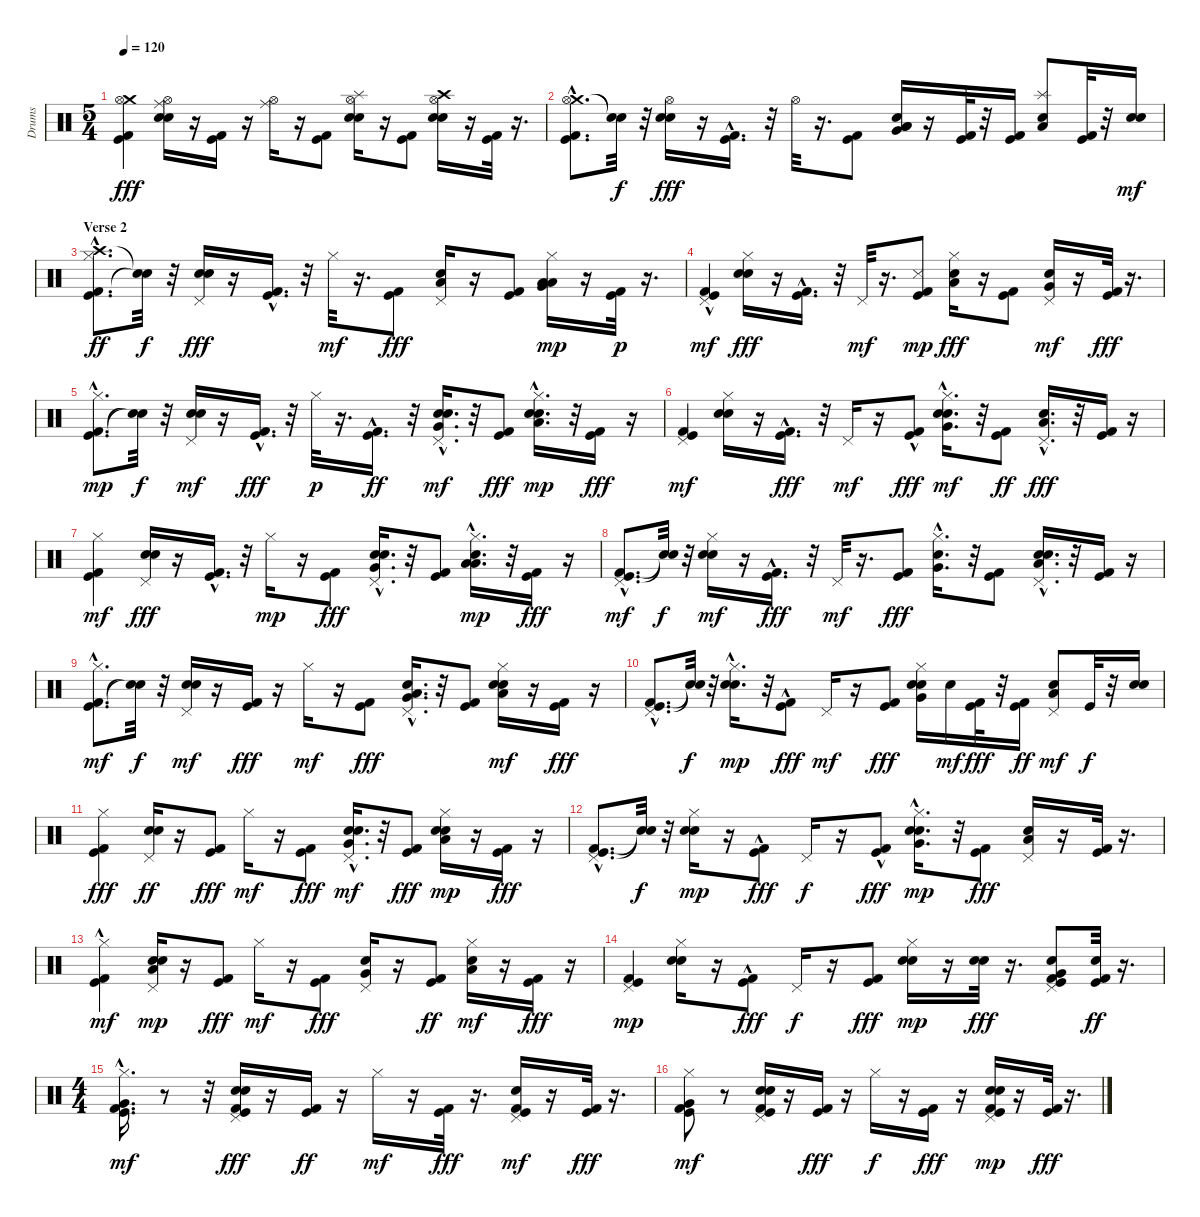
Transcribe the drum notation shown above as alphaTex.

\track ("Drums" "Drums") {instrument percussion}
\staff {score}
\articulation defaults
\ts (5 4)
\tempo 120
\clef neutral
\ks c
("Crash medium (hit)" "Hi-Hat (open)" "Kick (hit) 2" "Kick (hit)").4{dy fff} ("Hi-Hat (open)" "Ride (middle)" "Electric Snare (hit)" "Snare (hit) 2").16 r.16 ("Kick (hit)" "Kick (hit) 2").16 r.16 ("Hi-Hat (open)" "Ride (middle)").16 r.16 ("Kick (hit)" "Kick (hit) 2").8 ("Hi-Hat (open)" "Splash (hit)" "Snare (hit) 2" "Electric Snare (hit)").16 r.16 ("Kick (hit) 2" "Kick (hit)").8 ("Crash high (hit)" "Hi-Hat (open)" "Snare (hit) 2" "Electric Snare (hit)").16 r.16 ("Kick (hit) 2" "Kick (hit)").32 r.16{d} |
("Crash medium (hit)" "Hi-Hat (open)" "Kick (hit) 2"{hac} "Kick (hit)"{hac}).8{d} ("Snare (hit)"{t} "Snare (hit)"{t}).32{dy f} r.32 ("Hi-Hat (open)" "Electric Snare (hit)" "Snare (hit) 2").16{dy fff} r.16 ("Kick (hit) 2"{hac} "Kick (hit)"{hac}).16{d} r.32 "Hi-Hat (open)".32 r.16{d} ("Kick (hit) 2" "Kick (hit)").8 ("Low Tom (hit)" "Very Low Tom (hit)" "Low Floor Tom (hit)" "Snare (hit) 2").16 r.16 ("Kick (hit) 2" "Kick (hit)").32 r.32 ("Kick (hit) 2" "Kick (hit)").16 ("Low Floor Tom (hit)" "Splash (hit)" "Snare (hit) 2").8 ("Kick (hit) 2" "Kick (hit)").32 r.32 ("Snare (hit) 2" "Electric Snare (hit)").16{dy mf} |
\section ("" "Verse 2")
("Crash high (hit)" "Kick (hit) 2"{hac} "Kick (hit)"{hac} "Hi-Hat (closed)").8{d dy ff} ("Snare (hit)"{t} "Snare (hit)"{t}).32{dy f} r.32 ("Electric Snare (hit)" "Snare (hit) 2" "Pedal Hi-Hat (hit)").16{dy fff} r.16 ("Kick (hit) 2" "Kick (hit)"{hac}).16{d} r.32 "Hi-Hat (closed)".32{dy mf} r.16{d} ("Kick (hit) 2" "Kick (hit)").8{dy fff} ("Snare (hit) 2" "Low Floor Tom (hit)" "Pedal Hi-Hat (hit)").16 r.16 ("Kick (hit)" "Kick (hit) 2").8 ("Low Tom (hit)" "Very Low Tom (hit)" "Low Floor Tom (hit)" "Hi-Hat (closed)").16{dy mp} r.16 ("Kick (hit) 2" "Kick (hit)").32{dy p} r.16{d} |
("Kick (hit) 2"{hac} "Kick (hit)" "Pedal Hi-Hat (hit)").4{dy mf} ("Snare (hit) 2" "Electric Snare (hit)" "Hi-Hat (closed)").16{dy fff} r.16 ("Kick (hit)" "Kick (hit) 2"{hac}).16{d} r.32 "Pedal Hi-Hat (hit)".32{dy mf} r.16{d} ("Kick (hit) 2" "Kick (hit)" "Metronome (hit)").8{dy mp} ("Hi-Hat (closed)" "Snare (hit) 2" "Low Floor Tom (hit)").16{dy fff} r.16 ("Kick (hit)" "Kick (hit) 2").8 ("Very Low Tom (hit)" "Snare (hit) 2" "Pedal Hi-Hat (hit)").16{dy mf} r.16 ("Kick (hit) 2" "Kick (hit)").32{dy fff} r.16{d} |
("Kick (hit) 2"{hac} "Kick (hit)"{hac} "Hi-Hat (closed)").8{d dy mp} ("Snare (hit)"{t} "Snare (hit)"{t}).32{dy f} r.32 ("Snare (hit) 2" "Electric Snare (hit)" "Pedal Hi-Hat (hit)").16{dy mf} r.16 ("Kick (hit)"{hac} "Kick (hit) 2"{hac}).16{d dy fff} r.32 "Hi-Hat (closed)".32{dy p} r.16{d} ("Kick (hit)"{hac} "Kick (hit) 2"{hac}).16{d dy ff} r.32 ("Electric Snare (hit)" "Very Low Tom (hit)"{hac} "Snare (hit) 2"{hac} "Pedal Hi-Hat (hit)").16{d dy mf} r.32 ("Kick (hit) 2" "Kick (hit)").8{dy fff} ("Electric Snare (hit)" "Low Tom (hit)"{hac} "Snare (hit) 2"{hac} "Hi-Hat (closed)").16{d dy mp} r.32 ("Kick (hit) 2" "Kick (hit)").16{dy fff} r.16 |
("Kick (hit) 2" "Kick (hit)" "Pedal Hi-Hat (hit)").4{dy mf} ("Electric Snare (hit)" "Snare (hit) 2" "Hi-Hat (closed)").16 r.16 ("Kick (hit) 2"{hac} "Kick (hit)"{hac}).16{d dy fff} r.32 "Pedal Hi-Hat (hit)".16{dy mf} r.16 ("Kick (hit) 2"{hac} "Kick (hit)").8{dy fff} ("Electric Snare (hit)" "Very Low Tom (hit)"{hac} "Snare (hit) 2"{hac} "Hi-Hat (closed)").16{d dy mf} r.32 ("Kick (hit) 2" "Kick (hit)").8{dy ff} ("Low Tom (hit)"{hac} "Snare (hit) 2" "Pedal Hi-Hat (hit)").16{d dy fff} r.32 ("Kick (hit)" "Kick (hit) 2").16 r.16 |
("Kick (hit) 2" "Kick (hit)" "Hi-Hat (closed)").4{dy mf} ("Snare (hit) 2" "Electric Snare (hit)" "Pedal Hi-Hat (hit)").16{dy fff} r.16 ("Kick (hit) 2"{hac} "Kick (hit)"{hac}).16{d} r.32 "Hi-Hat (closed)".16{dy mp} r.16 ("Kick (hit)" "Kick (hit) 2").8{dy fff} ("Pedal Hi-Hat (hit)" "Electric Snare (hit)" "Snare (hit) 2"{hac} "Very Low Tom (hit)"{hac}).16{d} r.32 ("Kick (hit) 2" "Kick (hit)").8 ("Low Floor Tom (hit)" "Snare (hit) 2"{hac} "Low Tom (hit)"{hac} "Hi-Hat (closed)").16{d dy mp} r.32 ("Kick (hit)" "Kick (hit) 2").16{dy fff} r.16 |
("Kick (hit) 2"{hac} "Kick (hit)"{hac} "Pedal Hi-Hat (hit)").8{d dy mf} ("Snare (hit)"{t} "Snare (hit)"{t}).32{dy f} r.32 ("Electric Snare (hit)" "Snare (hit) 2" "Hi-Hat (closed)").16{dy mf} r.16 ("Kick (hit) 2"{hac} "Kick (hit)"{hac}).16{d dy fff} r.32 "Pedal Hi-Hat (hit)".32{dy mf} r.16{d} ("Kick (hit) 2" "Kick (hit)").8{dy fff} ("Hi-Hat (closed)" "Snare (hit) 2"{hac} "Very Low Tom (hit)"{hac}).16{d} r.32 ("Kick (hit) 2" "Kick (hit)").8 ("Pedal Hi-Hat (hit)" "Electric Snare (hit)" "Low Tom (hit)"{hac} "Snare (hit) 2"{hac}).16{d} r.32 ("Kick (hit) 2" "Kick (hit)").16 r.16 |
("Kick (hit) 2"{hac} "Kick (hit)"{hac} "Hi-Hat (closed)").8{d dy mf} ("Snare (hit)"{t} "Snare (hit)"{t}).32{dy f} r.32 ("Electric Snare (hit)" "Snare (hit) 2" "Pedal Hi-Hat (hit)").16{dy mf} r.16 ("Kick (hit) 2" "Kick (hit)").16{dy fff} r.16 "Hi-Hat (closed)".16{dy mf} r.16 ("Kick (hit)" "Kick (hit) 2").8{dy fff} ("Snare (hit) 2" "Very Low Tom (hit)"{hac} "Low Floor Tom (hit)" "Pedal Hi-Hat (hit)").16{d} r.32 ("Kick (hit) 2" "Kick (hit)").8 ("Low Tom (hit)" "Snare (hit) 2" "Electric Snare (hit)" "Hi-Hat (closed)").16{dy mf} r.16 ("Kick (hit)" "Kick (hit) 2").16{dy fff} r.16 |
("Kick (hit)"{hac} "Kick (hit) 2"{hac} "Pedal Hi-Hat (hit)").8{d} ("Snare (hit)"{t} "Snare (hit)"{t}).32{dy f} r.32 ("Snare (hit) 2" "Electric Snare (hit)"{hac} "Hi-Hat (closed)").16{d dy mp} r.32 ("Kick (hit) 2"{hac} "Kick (hit)").8{dy fff} "Pedal Hi-Hat (hit)".16{dy mf} r.16 ("Kick (hit) 2" "Kick (hit)").8{dy fff} ("Hi-Hat (closed)" "Electric Snare (hit)" "Very Low Tom (hit)" "Snare (hit) 2").16 "Snare (hit) 2".16{dy mf} ("Kick (hit) 2" "Kick (hit)").32{dy fff} r.32 ("Kick (hit)" "Kick (hit) 2").16{dy ff} ("Snare (hit) 2" "Low Tom (hit)" "Pedal Hi-Hat (hit)").8{dy mf} "Kick (hit)".32{dy f} r.32 ("Snare (hit) 2" "Electric Snare (hit)").16 |
("Hi-Hat (closed)" "Kick (hit) 2" "Kick (hit)").4{dy fff} ("Electric Snare (hit)" "Snare (hit) 2" "Pedal Hi-Hat (hit)").16{dy ff} r.16 ("Kick (hit) 2" "Kick (hit)").8{dy fff} "Hi-Hat (closed)".16{dy mf} r.16 ("Kick (hit)" "Kick (hit) 2").8{dy fff} ("Electric Snare (hit)" "Very Low Tom (hit)"{hac} "Snare (hit) 2"{hac} "Pedal Hi-Hat (hit)").16{d dy mf} r.32 ("Kick (hit) 2" "Kick (hit)").8{dy fff} ("Electric Snare (hit)" "Low Tom (hit)" "Snare (hit) 2" "Hi-Hat (closed)").16{dy mp} r.16 ("Kick (hit)" "Kick (hit) 2").16{dy fff} r.16 |
("Kick (hit) 2"{hac} "Kick (hit)"{hac} "Pedal Hi-Hat (hit)").8{d} ("Snare (hit)"{t} "Snare (hit)"{t}).32{dy f} r.32 ("Electric Snare (hit)" "Snare (hit) 2" "Hi-Hat (closed)").16{dy mp} r.16 ("Kick (hit) 2"{hac} "Kick (hit)").8{dy fff} "Pedal Hi-Hat (hit)".16{dy f} r.16 ("Kick (hit) 2"{hac} "Kick (hit)").8{dy fff} ("Electric Snare (hit)" "Very Low Tom (hit)"{hac} "Snare (hit) 2"{hac} "Hi-Hat (closed)").16{d dy mp} r.32 ("Kick (hit)" "Kick (hit) 2").8{dy fff} ("Low Tom (hit)" "Snare (hit) 2" "Pedal Hi-Hat (hit)").16 r.16 ("Kick (hit) 2" "Kick (hit)").32 r.16{d} |
("Kick (hit) 2"{hac} "Kick (hit)" "Hi-Hat (closed)").4{dy mf} ("Low Floor Tom (hit)" "Electric Snare (hit)" "Snare (hit) 2" "Pedal Hi-Hat (hit)").16{dy mp} r.16 ("Kick (hit) 2" "Kick (hit)").8{dy fff} "Hi-Hat (closed)".16{dy mf} r.16 ("Kick (hit) 2" "Kick (hit)").8{dy fff} ("Snare (hit) 2" "Very Low Tom (hit)" "Pedal Hi-Hat (hit)").16 r.16 ("Kick (hit)" "Kick (hit) 2").8{dy ff} ("Low Tom (hit)" "Snare (hit) 2" "Hi-Hat (closed)").16{dy mf} r.16 ("Kick (hit)" "Kick (hit) 2").16{dy fff} r.16 |
("Kick (hit) 2" "Kick (hit)" "Pedal Hi-Hat (hit)").4{dy mp} ("Snare (hit) 2" "Electric Snare (hit)" "Hi-Hat (closed)").16 r.16 ("Kick (hit) 2"{hac} "Kick (hit)").8{dy fff} "Pedal Hi-Hat (hit)".16{dy f} r.16 ("Kick (hit)" "Kick (hit) 2").8{dy fff} ("Snare (hit) 2" "Electric Snare (hit)" "Hi-Hat (closed)").16{dy mp} r.16 ("Snare (hit) 2" "Electric Snare (hit)").32{dy fff} r.16{d} ("Kick (hit)" "Kick (hit) 2" "Snare (hit) 2" "Very Low Tom (hit)" "Pedal Hi-Hat (hit)").8 ("Kick (hit) 2" "Kick (hit)" "Snare (hit) 2").32{dy ff} r.16{d} |
\ts (4 4)
("Very Low Tom (hit)" "Kick (hit) 2"{hac} "Kick (hit)"{hac} "Hi-Hat (closed)").16{d dy mf} r.8 r.32 ("Electric Snare (hit)" "Snare (hit) 2" "Kick (hit) 2" "Kick (hit)" "Pedal Hi-Hat (hit)").16{dy fff} r.16 ("Kick (hit)" "Kick (hit) 2").16{dy ff} r.16 "Hi-Hat (closed)".16{dy mf} r.16 ("Kick (hit) 2" "Kick (hit)").32{dy fff} r.16{d} ("Snare (hit) 2" "Kick (hit)" "Kick (hit) 2" "Pedal Hi-Hat (hit)").16{dy mf} r.16 ("Kick (hit)" "Kick (hit) 2").32{dy fff} r.16{d} |
("Very Low Tom (hit)" "Kick (hit)" "Kick (hit) 2" "Hi-Hat (closed)").8{dy mf} r.8 ("Electric Snare (hit)" "Snare (hit) 2" "Kick (hit)" "Kick (hit) 2" "Pedal Hi-Hat (hit)").16 r.16 ("Kick (hit)" "Kick (hit) 2").16{dy fff} r.16 "Hi-Hat (closed)".16{dy f} r.16 ("Kick (hit) 2" "Kick (hit)").16{dy fff} r.16 ("Snare (hit) 2" "Electric Snare (hit)" "Kick (hit) 2" "Kick (hit)" "Pedal Hi-Hat (hit)").16{dy mp} r.16 ("Kick (hit)" "Kick (hit) 2").32{dy fff} r.16{d}
